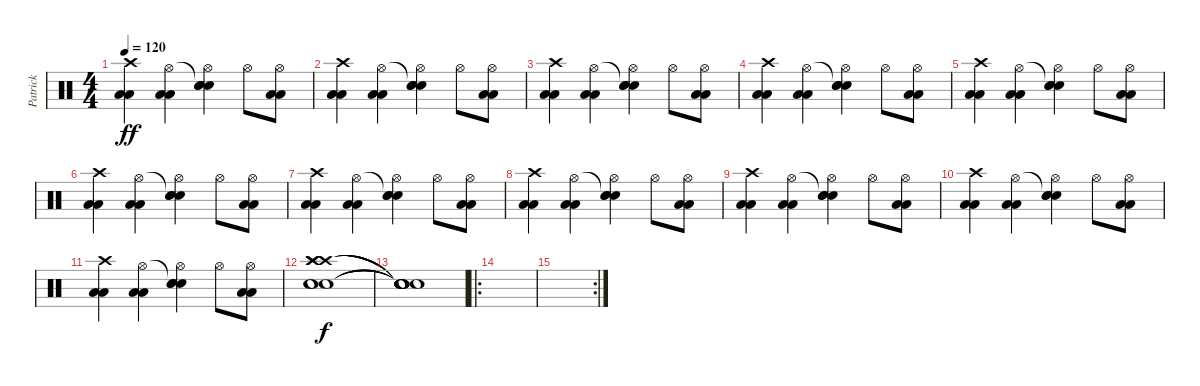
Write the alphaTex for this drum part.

\track ("Patrick" "Patrick") {instrument percussion}
\staff {score}
\articulation defaults
\ts (4 4)
\tempo 120
\clef neutral
\ks c
("Crash high (hit)" "Low Floor Tom (hit)" "Low Floor Tom (hit)").4{dy ff} ("Hi-Hat (open)" "Low Floor Tom (hit)" "Low Floor Tom (hit)").4 ("Snare (hit)"{t} "Hi-Hat (open)" "Electric Snare (hit)" "Electric Snare (hit)").4 "Hi-Hat (open)".8 ("Hi-Hat (open)" "Low Floor Tom (hit)" "Low Floor Tom (hit)").8 |
("Crash high (hit)" "Low Floor Tom (hit)" "Low Floor Tom (hit)").4 ("Hi-Hat (open)" "Low Floor Tom (hit)" "Low Floor Tom (hit)").4 ("Snare (hit)"{t} "Hi-Hat (open)" "Electric Snare (hit)" "Electric Snare (hit)").4 "Hi-Hat (open)".8 ("Hi-Hat (open)" "Low Floor Tom (hit)" "Low Floor Tom (hit)").8 |
("Crash high (hit)" "Low Floor Tom (hit)" "Low Floor Tom (hit)").4 ("Hi-Hat (open)" "Low Floor Tom (hit)" "Low Floor Tom (hit)").4 ("Snare (hit)"{t} "Hi-Hat (open)" "Electric Snare (hit)" "Electric Snare (hit)").4 "Hi-Hat (open)".8 ("Hi-Hat (open)" "Low Floor Tom (hit)" "Low Floor Tom (hit)").8 |
("Crash high (hit)" "Low Floor Tom (hit)" "Low Floor Tom (hit)").4 ("Hi-Hat (open)" "Low Floor Tom (hit)" "Low Floor Tom (hit)").4 ("Snare (hit)"{t} "Hi-Hat (open)" "Electric Snare (hit)" "Electric Snare (hit)").4 "Hi-Hat (open)".8 ("Hi-Hat (open)" "Low Floor Tom (hit)" "Low Floor Tom (hit)").8 |
("Crash high (hit)" "Low Floor Tom (hit)" "Low Floor Tom (hit)").4 ("Hi-Hat (open)" "Low Floor Tom (hit)" "Low Floor Tom (hit)").4 ("Snare (hit)"{t} "Hi-Hat (open)" "Electric Snare (hit)" "Electric Snare (hit)").4 "Hi-Hat (open)".8 ("Hi-Hat (open)" "Low Floor Tom (hit)" "Low Floor Tom (hit)").8 |
("Crash high (hit)" "Low Floor Tom (hit)" "Low Floor Tom (hit)").4 ("Hi-Hat (open)" "Low Floor Tom (hit)" "Low Floor Tom (hit)").4 ("Snare (hit)"{t} "Hi-Hat (open)" "Electric Snare (hit)" "Electric Snare (hit)").4 "Hi-Hat (open)".8 ("Hi-Hat (open)" "Low Floor Tom (hit)" "Low Floor Tom (hit)").8 |
("Crash high (hit)" "Low Floor Tom (hit)" "Low Floor Tom (hit)").4 ("Hi-Hat (open)" "Low Floor Tom (hit)" "Low Floor Tom (hit)").4 ("Snare (hit)"{t} "Hi-Hat (open)" "Electric Snare (hit)" "Electric Snare (hit)").4 "Hi-Hat (open)".8 ("Hi-Hat (open)" "Low Floor Tom (hit)" "Low Floor Tom (hit)").8 |
("Crash high (hit)" "Low Floor Tom (hit)" "Low Floor Tom (hit)").4 ("Hi-Hat (open)" "Low Floor Tom (hit)" "Low Floor Tom (hit)").4 ("Snare (hit)"{t} "Hi-Hat (open)" "Electric Snare (hit)" "Electric Snare (hit)").4 "Hi-Hat (open)".8 ("Hi-Hat (open)" "Low Floor Tom (hit)" "Low Floor Tom (hit)").8 |
("Crash high (hit)" "Low Floor Tom (hit)" "Low Floor Tom (hit)").4 ("Hi-Hat (open)" "Low Floor Tom (hit)" "Low Floor Tom (hit)").4 ("Snare (hit)"{t} "Hi-Hat (open)" "Electric Snare (hit)" "Electric Snare (hit)").4 "Hi-Hat (open)".8 ("Hi-Hat (open)" "Low Floor Tom (hit)" "Low Floor Tom (hit)").8 |
("Crash high (hit)" "Low Floor Tom (hit)" "Low Floor Tom (hit)").4 ("Hi-Hat (open)" "Low Floor Tom (hit)" "Low Floor Tom (hit)").4 ("Snare (hit)"{t} "Hi-Hat (open)" "Electric Snare (hit)" "Electric Snare (hit)").4 "Hi-Hat (open)".8 ("Hi-Hat (open)" "Low Floor Tom (hit)" "Low Floor Tom (hit)").8 |
("Crash high (hit)" "Low Floor Tom (hit)" "Low Floor Tom (hit)").4 ("Hi-Hat (open)" "Low Floor Tom (hit)" "Low Floor Tom (hit)").4 ("Snare (hit)"{t} "Hi-Hat (open)" "Electric Snare (hit)" "Electric Snare (hit)").4 "Hi-Hat (open)".8 ("Hi-Hat (open)" "Low Floor Tom (hit)" "Low Floor Tom (hit)").8 |
("Crash high (hit)" "Crash high (hit)" "Electric Snare (hit)" "Electric Snare (hit)" "Electric Snare (hit)" "Crash high (hit)").1{dy f} |
("Snare (hit)"{t} "Snare (hit)"{t} "Snare (hit)"{t} "Snare (hit)"{t} "Snare (hit)"{t} "Snare (hit)"{t}).1 |
\ro
|
\rc 2
